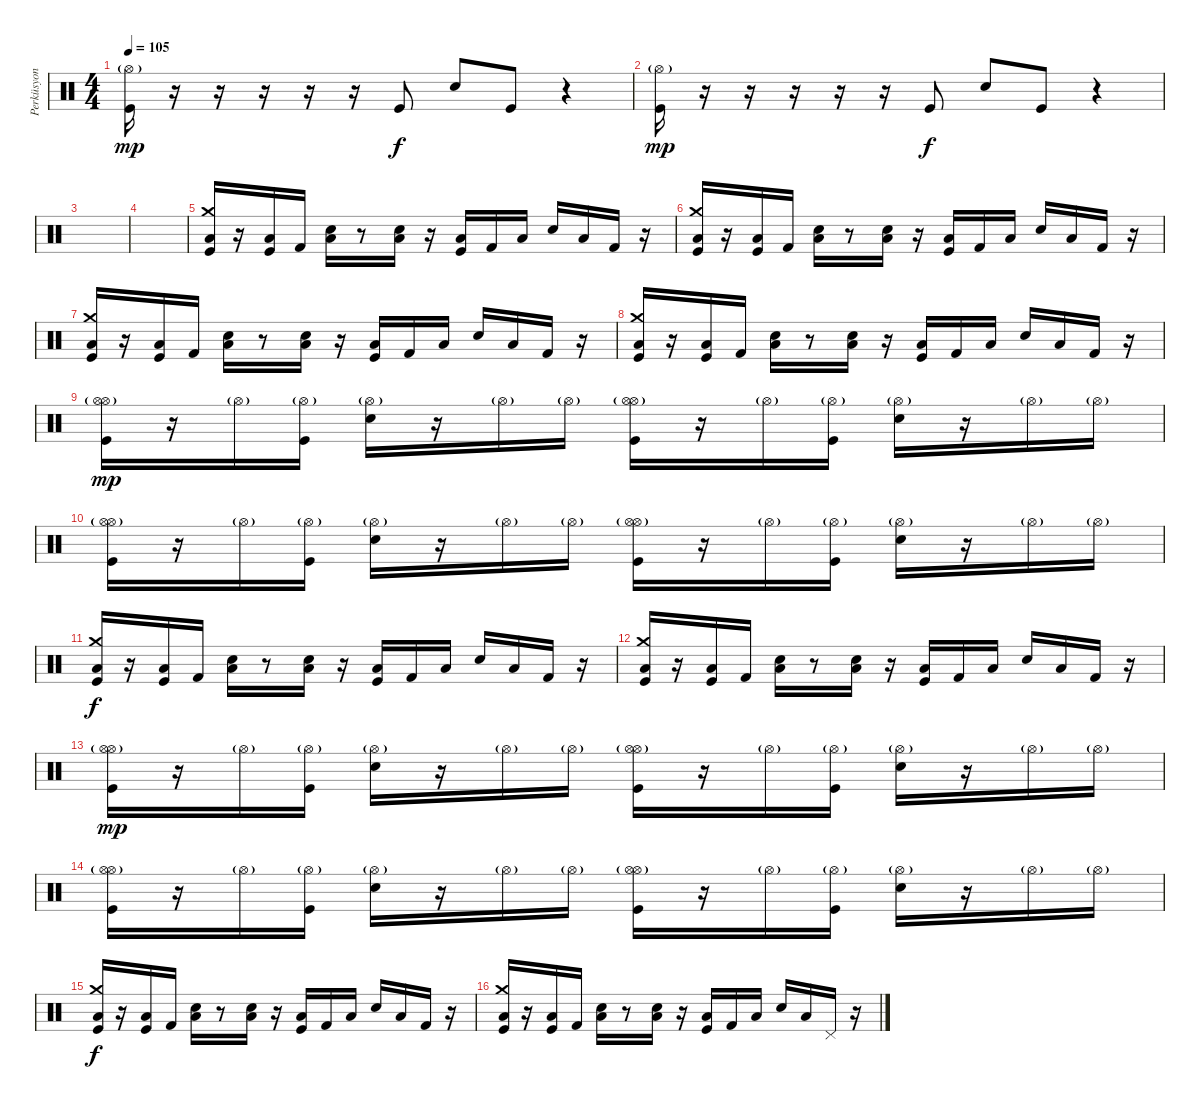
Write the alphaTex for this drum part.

\track ("Perküsyon" "Perküsyon") {instrument percussion}
\staff {score}
\articulation defaults
\ts (4 4)
\tempo 105
\clef neutral
\ks c
("Hi-Hat (open)"{g} "Kick (hit)").16{dy mp} r.16 r.16 r.16 r.16 r.16 "Kick (hit)".8{dy f} "Electric Snare (hit)".8 "Kick (hit)".8 r.4 |
("Hi-Hat (open)"{g} "Kick (hit)").16{dy mp} r.16 r.16 r.16 r.16 r.16 "Kick (hit)".8{dy f} "Electric Snare (hit)".8 "Kick (hit)".8 r.4 |
|
|
("Crash medium (hit)" "Kick (hit)" "Low Floor Tom (hit)").16 r.16 ("Kick (hit)" "Low Floor Tom (hit)").16 "Kick (hit) 2".16 ("Electric Snare (hit)" "Low Floor Tom (hit)").16 r.8 ("Electric Snare (hit)" "Low Floor Tom (hit)").16 r.16 ("Kick (hit)" "Low Floor Tom (hit)").16 "Kick (hit) 2".16 "Low Floor Tom (hit)".16 "Electric Snare (hit)".16 "Low Floor Tom (hit)".16 "Kick (hit) 2".16 r.16 |
("Crash medium (hit)" "Kick (hit)" "Low Floor Tom (hit)").16 r.16 ("Kick (hit)" "Low Floor Tom (hit)").16 "Kick (hit) 2".16 ("Electric Snare (hit)" "Low Floor Tom (hit)").16 r.8 ("Electric Snare (hit)" "Low Floor Tom (hit)").16 r.16 ("Kick (hit)" "Low Floor Tom (hit)").16 "Kick (hit) 2".16 "Low Floor Tom (hit)".16 "Electric Snare (hit)".16 "Low Floor Tom (hit)".16 "Kick (hit) 2".16 r.16 |
("Crash medium (hit)" "Kick (hit)" "Low Floor Tom (hit)").16 r.16 ("Kick (hit)" "Low Floor Tom (hit)").16 "Kick (hit) 2".16 ("Electric Snare (hit)" "Low Floor Tom (hit)").16 r.8 ("Electric Snare (hit)" "Low Floor Tom (hit)").16 r.16 ("Kick (hit)" "Low Floor Tom (hit)").16 "Kick (hit) 2".16 "Low Floor Tom (hit)".16 "Electric Snare (hit)".16 "Low Floor Tom (hit)".16 "Kick (hit) 2".16 r.16 |
("Crash medium (hit)" "Kick (hit)" "Low Floor Tom (hit)").16 r.16 ("Kick (hit)" "Low Floor Tom (hit)").16 "Kick (hit) 2".16 ("Electric Snare (hit)" "Low Floor Tom (hit)").16 r.8 ("Electric Snare (hit)" "Low Floor Tom (hit)").16 r.16 ("Kick (hit)" "Low Floor Tom (hit)").16 "Kick (hit) 2".16 "Low Floor Tom (hit)".16 "Electric Snare (hit)".16 "Low Floor Tom (hit)".16 "Kick (hit) 2".16 r.16 |
("Hi-Hat (open)"{g pm} "Kick (hit)" "Hi-Hat (open)"{g}).16{dy mp} r.16 "Hi-Hat (open)"{g}.16 ("Kick (hit)" "Hi-Hat (open)"{g}).16 ("Electric Snare (hit)" "Hi-Hat (open)"{g}).16 r.16 "Hi-Hat (open)"{g}.16 "Hi-Hat (open)"{g}.16 ("Hi-Hat (open)"{g pm} "Kick (hit)" "Hi-Hat (open)"{g}).16 r.16 "Hi-Hat (open)"{g}.16 ("Kick (hit)" "Hi-Hat (open)"{g}).16 ("Electric Snare (hit)" "Hi-Hat (open)"{g}).16 r.16 "Hi-Hat (open)"{g}.16 "Hi-Hat (open)"{g}.16 |
("Hi-Hat (open)"{g pm} "Kick (hit)" "Hi-Hat (open)"{g}).16 r.16 "Hi-Hat (open)"{g}.16 ("Kick (hit)" "Hi-Hat (open)"{g}).16 ("Electric Snare (hit)" "Hi-Hat (open)"{g}).16 r.16 "Hi-Hat (open)"{g}.16 "Hi-Hat (open)"{g}.16 ("Hi-Hat (open)"{g pm} "Kick (hit)" "Hi-Hat (open)"{g}).16 r.16 "Hi-Hat (open)"{g}.16 ("Kick (hit)" "Hi-Hat (open)"{g}).16 ("Electric Snare (hit)" "Hi-Hat (open)"{g}).16 r.16 "Hi-Hat (open)"{g}.16 "Hi-Hat (open)"{g}.16 |
("Crash medium (hit)" "Kick (hit)" "Low Floor Tom (hit)").16{dy f} r.16 ("Kick (hit)" "Low Floor Tom (hit)").16 "Kick (hit) 2".16 ("Electric Snare (hit)" "Low Floor Tom (hit)").16 r.8 ("Electric Snare (hit)" "Low Floor Tom (hit)").16 r.16 ("Kick (hit)" "Low Floor Tom (hit)").16 "Kick (hit) 2".16 "Low Floor Tom (hit)".16 "Electric Snare (hit)".16 "Low Floor Tom (hit)".16 "Kick (hit) 2".16 r.16 |
("Crash medium (hit)" "Kick (hit)" "Low Floor Tom (hit)").16 r.16 ("Kick (hit)" "Low Floor Tom (hit)").16 "Kick (hit) 2".16 ("Electric Snare (hit)" "Low Floor Tom (hit)").16 r.8 ("Electric Snare (hit)" "Low Floor Tom (hit)").16 r.16 ("Kick (hit)" "Low Floor Tom (hit)").16 "Kick (hit) 2".16 "Low Floor Tom (hit)".16 "Electric Snare (hit)".16 "Low Floor Tom (hit)".16 "Kick (hit) 2".16 r.16 |
("Hi-Hat (open)"{g pm} "Kick (hit)" "Hi-Hat (open)"{g}).16{dy mp} r.16 "Hi-Hat (open)"{g}.16 ("Kick (hit)" "Hi-Hat (open)"{g}).16 ("Electric Snare (hit)" "Hi-Hat (open)"{g}).16 r.16 "Hi-Hat (open)"{g}.16 "Hi-Hat (open)"{g}.16 ("Hi-Hat (open)"{g pm} "Kick (hit)" "Hi-Hat (open)"{g}).16 r.16 "Hi-Hat (open)"{g}.16 ("Kick (hit)" "Hi-Hat (open)"{g}).16 ("Electric Snare (hit)" "Hi-Hat (open)"{g}).16 r.16 "Hi-Hat (open)"{g}.16 "Hi-Hat (open)"{g}.16 |
("Hi-Hat (open)"{g pm} "Kick (hit)" "Hi-Hat (open)"{g}).16 r.16 "Hi-Hat (open)"{g}.16 ("Kick (hit)" "Hi-Hat (open)"{g}).16 ("Electric Snare (hit)" "Hi-Hat (open)"{g}).16 r.16 "Hi-Hat (open)"{g}.16 "Hi-Hat (open)"{g}.16 ("Hi-Hat (open)"{g pm} "Kick (hit)" "Hi-Hat (open)"{g}).16 r.16 "Hi-Hat (open)"{g}.16 ("Kick (hit)" "Hi-Hat (open)"{g}).16 ("Electric Snare (hit)" "Hi-Hat (open)"{g}).16 r.16 "Hi-Hat (open)"{g}.16 "Hi-Hat (open)"{g}.16 |
("Crash medium (hit)" "Kick (hit)" "Low Floor Tom (hit)").16{dy f} r.16 ("Kick (hit)" "Low Floor Tom (hit)").16 "Kick (hit) 2".16 ("Electric Snare (hit)" "Low Floor Tom (hit)").16 r.8 ("Electric Snare (hit)" "Low Floor Tom (hit)").16 r.16 ("Kick (hit)" "Low Floor Tom (hit)").16 "Kick (hit) 2".16 "Low Floor Tom (hit)".16 "Electric Snare (hit)".16 "Low Floor Tom (hit)".16 "Kick (hit) 2".16 r.16 |
("Crash medium (hit)" "Kick (hit)" "Low Floor Tom (hit)").16 r.16 ("Kick (hit)" "Low Floor Tom (hit)").16 "Kick (hit) 2".16 ("Electric Snare (hit)" "Low Floor Tom (hit)").16 r.8 ("Electric Snare (hit)" "Low Floor Tom (hit)").16 r.16 ("Kick (hit)" "Low Floor Tom (hit)").16 "Kick (hit) 2".16 "Low Floor Tom (hit)".16 "Electric Snare (hit)".16 "Low Floor Tom (hit)".16 "Pedal Hi-Hat (hit)".16 r.16
